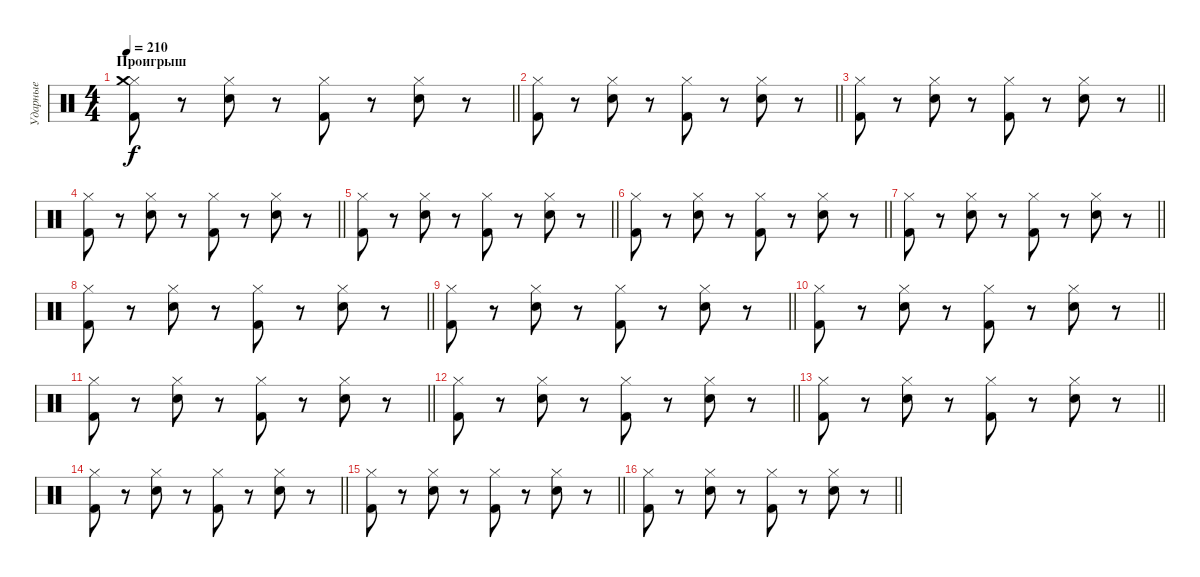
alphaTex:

\track ("Ударные" "Ударные") {instrument percussion}
\staff {score}
\articulation defaults
\ts (4 4)
\section ("" "Проигрыш")
\tempo 210
\clef neutral
\barLineRight lightlight
\ks c
("Kick (hit) 2" "Hi-Hat (closed)" "Crash medium (hit)").8{dy f} r.8 ("Snare (hit) 2" "Hi-Hat (closed)").8 r.8 ("Kick (hit) 2" "Hi-Hat (closed)").8 r.8 ("Snare (hit) 2" "Hi-Hat (closed)").8 r.8 |
\barLineRight lightlight
("Kick (hit) 2" "Hi-Hat (closed)").8 r.8 ("Snare (hit) 2" "Hi-Hat (closed)").8 r.8 ("Kick (hit) 2" "Hi-Hat (closed)").8 r.8 ("Snare (hit) 2" "Hi-Hat (closed)").8 r.8 |
\barLineRight lightlight
("Kick (hit) 2" "Hi-Hat (closed)").8 r.8 ("Snare (hit) 2" "Hi-Hat (closed)").8 r.8 ("Kick (hit) 2" "Hi-Hat (closed)").8 r.8 ("Snare (hit) 2" "Hi-Hat (closed)").8 r.8 |
\barLineRight lightlight
("Kick (hit) 2" "Hi-Hat (closed)").8 r.8 ("Snare (hit) 2" "Hi-Hat (closed)").8 r.8 ("Kick (hit) 2" "Hi-Hat (closed)").8 r.8 ("Snare (hit) 2" "Hi-Hat (closed)").8 r.8 |
\barLineRight lightlight
("Kick (hit) 2" "Hi-Hat (closed)").8 r.8 ("Snare (hit) 2" "Hi-Hat (closed)").8 r.8 ("Kick (hit) 2" "Hi-Hat (closed)").8 r.8 ("Snare (hit) 2" "Hi-Hat (closed)").8 r.8 |
\barLineRight lightlight
("Kick (hit) 2" "Hi-Hat (closed)").8 r.8 ("Snare (hit) 2" "Hi-Hat (closed)").8 r.8 ("Kick (hit) 2" "Hi-Hat (closed)").8 r.8 ("Snare (hit) 2" "Hi-Hat (closed)").8 r.8 |
\barLineRight lightlight
("Kick (hit) 2" "Hi-Hat (closed)").8 r.8 ("Snare (hit) 2" "Hi-Hat (closed)").8 r.8 ("Kick (hit) 2" "Hi-Hat (closed)").8 r.8 ("Snare (hit) 2" "Hi-Hat (closed)").8 r.8 |
\barLineRight lightlight
("Kick (hit) 2" "Hi-Hat (closed)").8 r.8 ("Snare (hit) 2" "Hi-Hat (closed)").8 r.8 ("Kick (hit) 2" "Hi-Hat (closed)").8 r.8 ("Snare (hit) 2" "Hi-Hat (closed)").8 r.8 |
\barLineRight lightlight
("Kick (hit) 2" "Hi-Hat (closed)").8 r.8 ("Snare (hit) 2" "Hi-Hat (closed)").8 r.8 ("Kick (hit) 2" "Hi-Hat (closed)").8 r.8 ("Snare (hit) 2" "Hi-Hat (closed)").8 r.8 |
\barLineRight lightlight
("Kick (hit) 2" "Hi-Hat (closed)").8 r.8 ("Snare (hit) 2" "Hi-Hat (closed)").8 r.8 ("Kick (hit) 2" "Hi-Hat (closed)").8 r.8 ("Snare (hit) 2" "Hi-Hat (closed)").8 r.8 |
\barLineRight lightlight
("Kick (hit) 2" "Hi-Hat (closed)").8 r.8 ("Snare (hit) 2" "Hi-Hat (closed)").8 r.8 ("Kick (hit) 2" "Hi-Hat (closed)").8 r.8 ("Snare (hit) 2" "Hi-Hat (closed)").8 r.8 |
\barLineRight lightlight
("Kick (hit) 2" "Hi-Hat (closed)").8 r.8 ("Snare (hit) 2" "Hi-Hat (closed)").8 r.8 ("Kick (hit) 2" "Hi-Hat (closed)").8 r.8 ("Snare (hit) 2" "Hi-Hat (closed)").8 r.8 |
\barLineRight lightlight
("Kick (hit) 2" "Hi-Hat (closed)").8 r.8 ("Snare (hit) 2" "Hi-Hat (closed)").8 r.8 ("Kick (hit) 2" "Hi-Hat (closed)").8 r.8 ("Snare (hit) 2" "Hi-Hat (closed)").8 r.8 |
\barLineRight lightlight
("Kick (hit) 2" "Hi-Hat (closed)").8 r.8 ("Snare (hit) 2" "Hi-Hat (closed)").8 r.8 ("Kick (hit) 2" "Hi-Hat (closed)").8 r.8 ("Snare (hit) 2" "Hi-Hat (closed)").8 r.8 |
\barLineRight lightlight
("Kick (hit) 2" "Hi-Hat (closed)").8 r.8 ("Snare (hit) 2" "Hi-Hat (closed)").8 r.8 ("Kick (hit) 2" "Hi-Hat (closed)").8 r.8 ("Snare (hit) 2" "Hi-Hat (closed)").8 r.8 |
\barLineRight lightlight
("Kick (hit) 2" "Hi-Hat (closed)").8 r.8 ("Snare (hit) 2" "Hi-Hat (closed)").8 r.8 ("Kick (hit) 2" "Hi-Hat (closed)").8 r.8 ("Snare (hit) 2" "Hi-Hat (closed)").8 r.8
